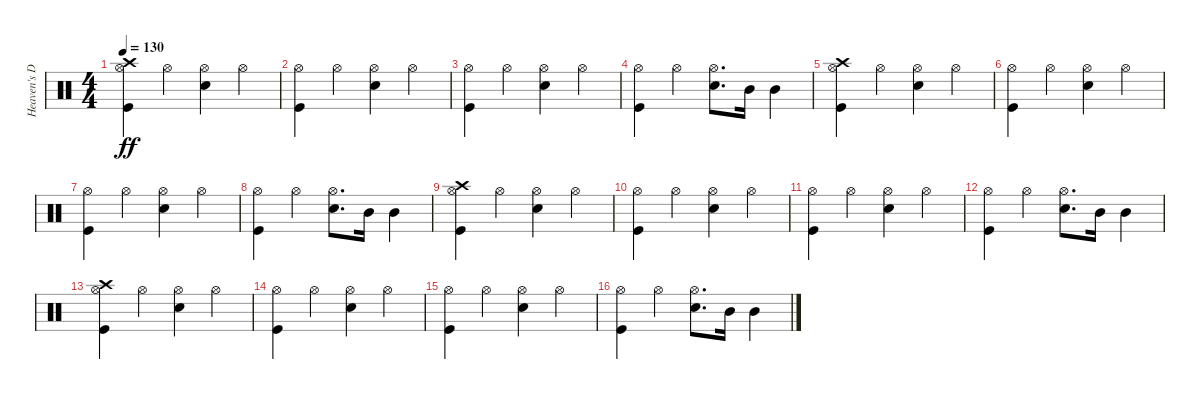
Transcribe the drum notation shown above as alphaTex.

\track ("Heaven's Door" "Heaven's D") {instrument percussion}
\staff {score}
\articulation defaults
\ts (4 4)
\tempo 130
\clef neutral
\ks c
("Crash high (hit)" "Hi-Hat (open)" "Kick (hit)").4{dy ff} "Hi-Hat (open)".4 ("Hi-Hat (open)" "Electric Snare (hit)").4 "Hi-Hat (open)".4 |
("Hi-Hat (open)" "Kick (hit)").4 "Hi-Hat (open)".4 ("Electric Snare (hit)" "Hi-Hat (open)").4 "Hi-Hat (open)".4 |
("Kick (hit)" "Hi-Hat (open)").4 "Hi-Hat (open)".4 ("Electric Snare (hit)" "Hi-Hat (open)").4 "Hi-Hat (open)".4 |
("Hi-Hat (open)" "Kick (hit)").4 "Hi-Hat (open)".4 ("Hi-Hat (open)" "Electric Snare (hit)").8{d} "Mid Tom (hit)".16 "Mid Tom (hit)".4 |
("Crash high (hit)" "Hi-Hat (open)" "Kick (hit)").4 "Hi-Hat (open)".4 ("Hi-Hat (open)" "Electric Snare (hit)").4 "Hi-Hat (open)".4 |
("Hi-Hat (open)" "Kick (hit)").4 "Hi-Hat (open)".4 ("Electric Snare (hit)" "Hi-Hat (open)").4 "Hi-Hat (open)".4 |
("Kick (hit)" "Hi-Hat (open)").4 "Hi-Hat (open)".4 ("Electric Snare (hit)" "Hi-Hat (open)").4 "Hi-Hat (open)".4 |
("Hi-Hat (open)" "Kick (hit)").4 "Hi-Hat (open)".4 ("Hi-Hat (open)" "Electric Snare (hit)").8{d} "Mid Tom (hit)".16 "Mid Tom (hit)".4 |
("Crash high (hit)" "Hi-Hat (open)" "Kick (hit)").4 "Hi-Hat (open)".4 ("Hi-Hat (open)" "Electric Snare (hit)").4 "Hi-Hat (open)".4 |
("Hi-Hat (open)" "Kick (hit)").4 "Hi-Hat (open)".4 ("Electric Snare (hit)" "Hi-Hat (open)").4 "Hi-Hat (open)".4 |
("Kick (hit)" "Hi-Hat (open)").4 "Hi-Hat (open)".4 ("Electric Snare (hit)" "Hi-Hat (open)").4 "Hi-Hat (open)".4 |
("Hi-Hat (open)" "Kick (hit)").4 "Hi-Hat (open)".4 ("Hi-Hat (open)" "Electric Snare (hit)").8{d} "Mid Tom (hit)".16 "Mid Tom (hit)".4 |
("Crash high (hit)" "Hi-Hat (open)" "Kick (hit)").4 "Hi-Hat (open)".4 ("Hi-Hat (open)" "Electric Snare (hit)").4 "Hi-Hat (open)".4 |
("Hi-Hat (open)" "Kick (hit)").4 "Hi-Hat (open)".4 ("Electric Snare (hit)" "Hi-Hat (open)").4 "Hi-Hat (open)".4 |
("Kick (hit)" "Hi-Hat (open)").4 "Hi-Hat (open)".4 ("Electric Snare (hit)" "Hi-Hat (open)").4 "Hi-Hat (open)".4 |
("Hi-Hat (open)" "Kick (hit)").4 "Hi-Hat (open)".4 ("Hi-Hat (open)" "Electric Snare (hit)").8{d} "Mid Tom (hit)".16 "Mid Tom (hit)".4
